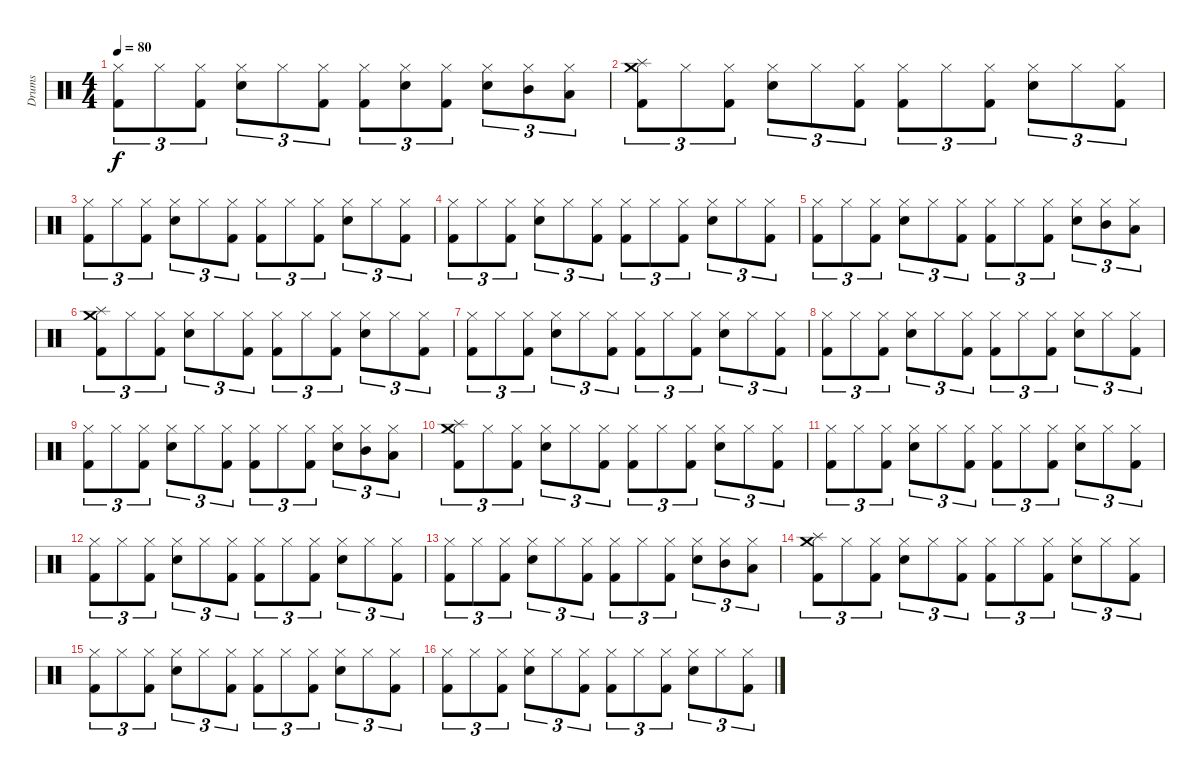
\track ("Drums" "Drums") {instrument percussion}
\staff {score}
\articulation defaults
\ts (4 4)
\tempo 80
\clef neutral
\ks c
("Hi-Hat (closed)" "Kick (hit) 2").8{tu (3 2) dy f} "Hi-Hat (closed)".8{tu (3 2)} ("Hi-Hat (closed)" "Kick (hit) 2").8{tu (3 2)} ("Hi-Hat (closed)" "Snare (hit) 2").8{tu (3 2)} "Hi-Hat (closed)".8{tu (3 2)} ("Hi-Hat (closed)" "Kick (hit) 2").8{tu (3 2)} ("Hi-Hat (closed)" "Kick (hit) 2").8{tu (3 2)} ("Hi-Hat (closed)" "Snare (hit) 2").8{tu (3 2)} ("Hi-Hat (closed)" "Kick (hit) 2").8{tu (3 2)} ("Hi-Hat (closed)" "Snare (hit) 2").8{tu (3 2)} ("Hi-Hat (closed)" "Mid Tom (hit)").8{tu (3 2)} ("Hi-Hat (closed)" "Low Tom (hit)").8{tu (3 2)} |
("Crash medium (hit)" "Splash (hit)" "Kick (hit) 2").8{tu (3 2)} "Hi-Hat (closed)".8{tu (3 2)} ("Hi-Hat (closed)" "Kick (hit) 2").8{tu (3 2)} ("Hi-Hat (closed)" "Snare (hit) 2").8{tu (3 2)} "Hi-Hat (closed)".8{tu (3 2)} ("Hi-Hat (closed)" "Kick (hit) 2").8{tu (3 2)} ("Hi-Hat (closed)" "Kick (hit) 2").8{tu (3 2)} "Hi-Hat (closed)".8{tu (3 2)} ("Hi-Hat (closed)" "Kick (hit) 2").8{tu (3 2)} ("Hi-Hat (closed)" "Snare (hit) 2").8{tu (3 2)} "Hi-Hat (closed)".8{tu (3 2)} ("Hi-Hat (closed)" "Kick (hit) 2").8{tu (3 2)} |
("Hi-Hat (closed)" "Kick (hit) 2").8{tu (3 2)} "Hi-Hat (closed)".8{tu (3 2)} ("Hi-Hat (closed)" "Kick (hit) 2").8{tu (3 2)} ("Hi-Hat (closed)" "Snare (hit) 2").8{tu (3 2)} "Hi-Hat (closed)".8{tu (3 2)} ("Hi-Hat (closed)" "Kick (hit) 2").8{tu (3 2)} ("Hi-Hat (closed)" "Kick (hit) 2").8{tu (3 2)} "Hi-Hat (closed)".8{tu (3 2)} ("Hi-Hat (closed)" "Kick (hit) 2").8{tu (3 2)} ("Hi-Hat (closed)" "Snare (hit) 2").8{tu (3 2)} "Hi-Hat (closed)".8{tu (3 2)} ("Hi-Hat (closed)" "Kick (hit) 2").8{tu (3 2)} |
("Hi-Hat (closed)" "Kick (hit) 2").8{tu (3 2)} "Hi-Hat (closed)".8{tu (3 2)} ("Hi-Hat (closed)" "Kick (hit) 2").8{tu (3 2)} ("Hi-Hat (closed)" "Snare (hit) 2").8{tu (3 2)} "Hi-Hat (closed)".8{tu (3 2)} ("Hi-Hat (closed)" "Kick (hit) 2").8{tu (3 2)} ("Hi-Hat (closed)" "Kick (hit) 2").8{tu (3 2)} "Hi-Hat (closed)".8{tu (3 2)} ("Hi-Hat (closed)" "Kick (hit) 2").8{tu (3 2)} ("Hi-Hat (closed)" "Snare (hit) 2").8{tu (3 2)} "Hi-Hat (closed)".8{tu (3 2)} ("Hi-Hat (closed)" "Kick (hit) 2").8{tu (3 2)} |
("Hi-Hat (closed)" "Kick (hit) 2").8{tu (3 2)} "Hi-Hat (closed)".8{tu (3 2)} ("Hi-Hat (closed)" "Kick (hit) 2").8{tu (3 2)} ("Hi-Hat (closed)" "Snare (hit) 2").8{tu (3 2)} "Hi-Hat (closed)".8{tu (3 2)} ("Hi-Hat (closed)" "Kick (hit) 2").8{tu (3 2)} ("Hi-Hat (closed)" "Kick (hit) 2").8{tu (3 2)} "Hi-Hat (closed)".8{tu (3 2)} ("Hi-Hat (closed)" "Kick (hit) 2").8{tu (3 2)} ("Hi-Hat (closed)" "Snare (hit) 2").8{tu (3 2)} ("Hi-Hat (closed)" "Mid Tom (hit)").8{tu (3 2)} ("Hi-Hat (closed)" "Low Tom (hit)").8{tu (3 2)} |
("Crash medium (hit)" "Splash (hit)" "Kick (hit) 2").8{tu (3 2)} "Hi-Hat (closed)".8{tu (3 2)} ("Hi-Hat (closed)" "Kick (hit) 2").8{tu (3 2)} ("Hi-Hat (closed)" "Snare (hit) 2").8{tu (3 2)} "Hi-Hat (closed)".8{tu (3 2)} ("Hi-Hat (closed)" "Kick (hit) 2").8{tu (3 2)} ("Hi-Hat (closed)" "Kick (hit) 2").8{tu (3 2)} "Hi-Hat (closed)".8{tu (3 2)} ("Hi-Hat (closed)" "Kick (hit) 2").8{tu (3 2)} ("Hi-Hat (closed)" "Snare (hit) 2").8{tu (3 2)} "Hi-Hat (closed)".8{tu (3 2)} ("Hi-Hat (closed)" "Kick (hit) 2").8{tu (3 2)} |
("Hi-Hat (closed)" "Kick (hit) 2").8{tu (3 2)} "Hi-Hat (closed)".8{tu (3 2)} ("Hi-Hat (closed)" "Kick (hit) 2").8{tu (3 2)} ("Hi-Hat (closed)" "Snare (hit) 2").8{tu (3 2)} "Hi-Hat (closed)".8{tu (3 2)} ("Hi-Hat (closed)" "Kick (hit) 2").8{tu (3 2)} ("Hi-Hat (closed)" "Kick (hit) 2").8{tu (3 2)} "Hi-Hat (closed)".8{tu (3 2)} ("Hi-Hat (closed)" "Kick (hit) 2").8{tu (3 2)} ("Hi-Hat (closed)" "Snare (hit) 2").8{tu (3 2)} "Hi-Hat (closed)".8{tu (3 2)} ("Hi-Hat (closed)" "Kick (hit) 2").8{tu (3 2)} |
("Hi-Hat (closed)" "Kick (hit) 2").8{tu (3 2)} "Hi-Hat (closed)".8{tu (3 2)} ("Hi-Hat (closed)" "Kick (hit) 2").8{tu (3 2)} ("Hi-Hat (closed)" "Snare (hit) 2").8{tu (3 2)} "Hi-Hat (closed)".8{tu (3 2)} ("Hi-Hat (closed)" "Kick (hit) 2").8{tu (3 2)} ("Hi-Hat (closed)" "Kick (hit) 2").8{tu (3 2)} "Hi-Hat (closed)".8{tu (3 2)} ("Hi-Hat (closed)" "Kick (hit) 2").8{tu (3 2)} ("Hi-Hat (closed)" "Snare (hit) 2").8{tu (3 2)} "Hi-Hat (closed)".8{tu (3 2)} ("Hi-Hat (closed)" "Kick (hit) 2").8{tu (3 2)} |
("Hi-Hat (closed)" "Kick (hit) 2").8{tu (3 2)} "Hi-Hat (closed)".8{tu (3 2)} ("Hi-Hat (closed)" "Kick (hit) 2").8{tu (3 2)} ("Hi-Hat (closed)" "Snare (hit) 2").8{tu (3 2)} "Hi-Hat (closed)".8{tu (3 2)} ("Hi-Hat (closed)" "Kick (hit) 2").8{tu (3 2)} ("Hi-Hat (closed)" "Kick (hit) 2").8{tu (3 2)} "Hi-Hat (closed)".8{tu (3 2)} ("Hi-Hat (closed)" "Kick (hit) 2").8{tu (3 2)} ("Hi-Hat (closed)" "Snare (hit) 2").8{tu (3 2)} ("Hi-Hat (closed)" "Mid Tom (hit)").8{tu (3 2)} ("Hi-Hat (closed)" "Low Tom (hit)").8{tu (3 2)} |
("Crash medium (hit)" "Splash (hit)" "Kick (hit) 2").8{tu (3 2)} "Hi-Hat (closed)".8{tu (3 2)} ("Hi-Hat (closed)" "Kick (hit) 2").8{tu (3 2)} ("Hi-Hat (closed)" "Snare (hit) 2").8{tu (3 2)} "Hi-Hat (closed)".8{tu (3 2)} ("Hi-Hat (closed)" "Kick (hit) 2").8{tu (3 2)} ("Hi-Hat (closed)" "Kick (hit) 2").8{tu (3 2)} "Hi-Hat (closed)".8{tu (3 2)} ("Hi-Hat (closed)" "Kick (hit) 2").8{tu (3 2)} ("Hi-Hat (closed)" "Snare (hit) 2").8{tu (3 2)} "Hi-Hat (closed)".8{tu (3 2)} ("Hi-Hat (closed)" "Kick (hit) 2").8{tu (3 2)} |
("Hi-Hat (closed)" "Kick (hit) 2").8{tu (3 2)} "Hi-Hat (closed)".8{tu (3 2)} ("Hi-Hat (closed)" "Kick (hit) 2").8{tu (3 2)} ("Hi-Hat (closed)" "Snare (hit) 2").8{tu (3 2)} "Hi-Hat (closed)".8{tu (3 2)} ("Hi-Hat (closed)" "Kick (hit) 2").8{tu (3 2)} ("Hi-Hat (closed)" "Kick (hit) 2").8{tu (3 2)} "Hi-Hat (closed)".8{tu (3 2)} ("Hi-Hat (closed)" "Kick (hit) 2").8{tu (3 2)} ("Hi-Hat (closed)" "Snare (hit) 2").8{tu (3 2)} "Hi-Hat (closed)".8{tu (3 2)} ("Hi-Hat (closed)" "Kick (hit) 2").8{tu (3 2)} |
("Hi-Hat (closed)" "Kick (hit) 2").8{tu (3 2)} "Hi-Hat (closed)".8{tu (3 2)} ("Hi-Hat (closed)" "Kick (hit) 2").8{tu (3 2)} ("Hi-Hat (closed)" "Snare (hit) 2").8{tu (3 2)} "Hi-Hat (closed)".8{tu (3 2)} ("Hi-Hat (closed)" "Kick (hit) 2").8{tu (3 2)} ("Hi-Hat (closed)" "Kick (hit) 2").8{tu (3 2)} "Hi-Hat (closed)".8{tu (3 2)} ("Hi-Hat (closed)" "Kick (hit) 2").8{tu (3 2)} ("Hi-Hat (closed)" "Snare (hit) 2").8{tu (3 2)} "Hi-Hat (closed)".8{tu (3 2)} ("Hi-Hat (closed)" "Kick (hit) 2").8{tu (3 2)} |
("Hi-Hat (closed)" "Kick (hit) 2").8{tu (3 2)} "Hi-Hat (closed)".8{tu (3 2)} ("Hi-Hat (closed)" "Kick (hit) 2").8{tu (3 2)} ("Hi-Hat (closed)" "Snare (hit) 2").8{tu (3 2)} "Hi-Hat (closed)".8{tu (3 2)} ("Hi-Hat (closed)" "Kick (hit) 2").8{tu (3 2)} ("Hi-Hat (closed)" "Kick (hit) 2").8{tu (3 2)} "Hi-Hat (closed)".8{tu (3 2)} ("Hi-Hat (closed)" "Kick (hit) 2").8{tu (3 2)} ("Hi-Hat (closed)" "Snare (hit) 2").8{tu (3 2)} ("Hi-Hat (closed)" "Mid Tom (hit)").8{tu (3 2)} ("Hi-Hat (closed)" "Low Tom (hit)").8{tu (3 2)} |
("Crash medium (hit)" "Splash (hit)" "Kick (hit) 2").8{tu (3 2)} "Hi-Hat (closed)".8{tu (3 2)} ("Hi-Hat (closed)" "Kick (hit) 2").8{tu (3 2)} ("Hi-Hat (closed)" "Snare (hit) 2").8{tu (3 2)} "Hi-Hat (closed)".8{tu (3 2)} ("Hi-Hat (closed)" "Kick (hit) 2").8{tu (3 2)} ("Hi-Hat (closed)" "Kick (hit) 2").8{tu (3 2)} "Hi-Hat (closed)".8{tu (3 2)} ("Hi-Hat (closed)" "Kick (hit) 2").8{tu (3 2)} ("Hi-Hat (closed)" "Snare (hit) 2").8{tu (3 2)} "Hi-Hat (closed)".8{tu (3 2)} ("Hi-Hat (closed)" "Kick (hit) 2").8{tu (3 2)} |
("Hi-Hat (closed)" "Kick (hit) 2").8{tu (3 2)} "Hi-Hat (closed)".8{tu (3 2)} ("Hi-Hat (closed)" "Kick (hit) 2").8{tu (3 2)} ("Hi-Hat (closed)" "Snare (hit) 2").8{tu (3 2)} "Hi-Hat (closed)".8{tu (3 2)} ("Hi-Hat (closed)" "Kick (hit) 2").8{tu (3 2)} ("Hi-Hat (closed)" "Kick (hit) 2").8{tu (3 2)} "Hi-Hat (closed)".8{tu (3 2)} ("Hi-Hat (closed)" "Kick (hit) 2").8{tu (3 2)} ("Hi-Hat (closed)" "Snare (hit) 2").8{tu (3 2)} "Hi-Hat (closed)".8{tu (3 2)} ("Hi-Hat (closed)" "Kick (hit) 2").8{tu (3 2)} |
("Hi-Hat (closed)" "Kick (hit) 2").8{tu (3 2)} "Hi-Hat (closed)".8{tu (3 2)} ("Hi-Hat (closed)" "Kick (hit) 2").8{tu (3 2)} ("Hi-Hat (closed)" "Snare (hit) 2").8{tu (3 2)} "Hi-Hat (closed)".8{tu (3 2)} ("Hi-Hat (closed)" "Kick (hit) 2").8{tu (3 2)} ("Hi-Hat (closed)" "Kick (hit) 2").8{tu (3 2)} "Hi-Hat (closed)".8{tu (3 2)} ("Hi-Hat (closed)" "Kick (hit) 2").8{tu (3 2)} ("Hi-Hat (closed)" "Snare (hit) 2").8{tu (3 2)} "Hi-Hat (closed)".8{tu (3 2)} ("Hi-Hat (closed)" "Kick (hit) 2").8{tu (3 2)}
